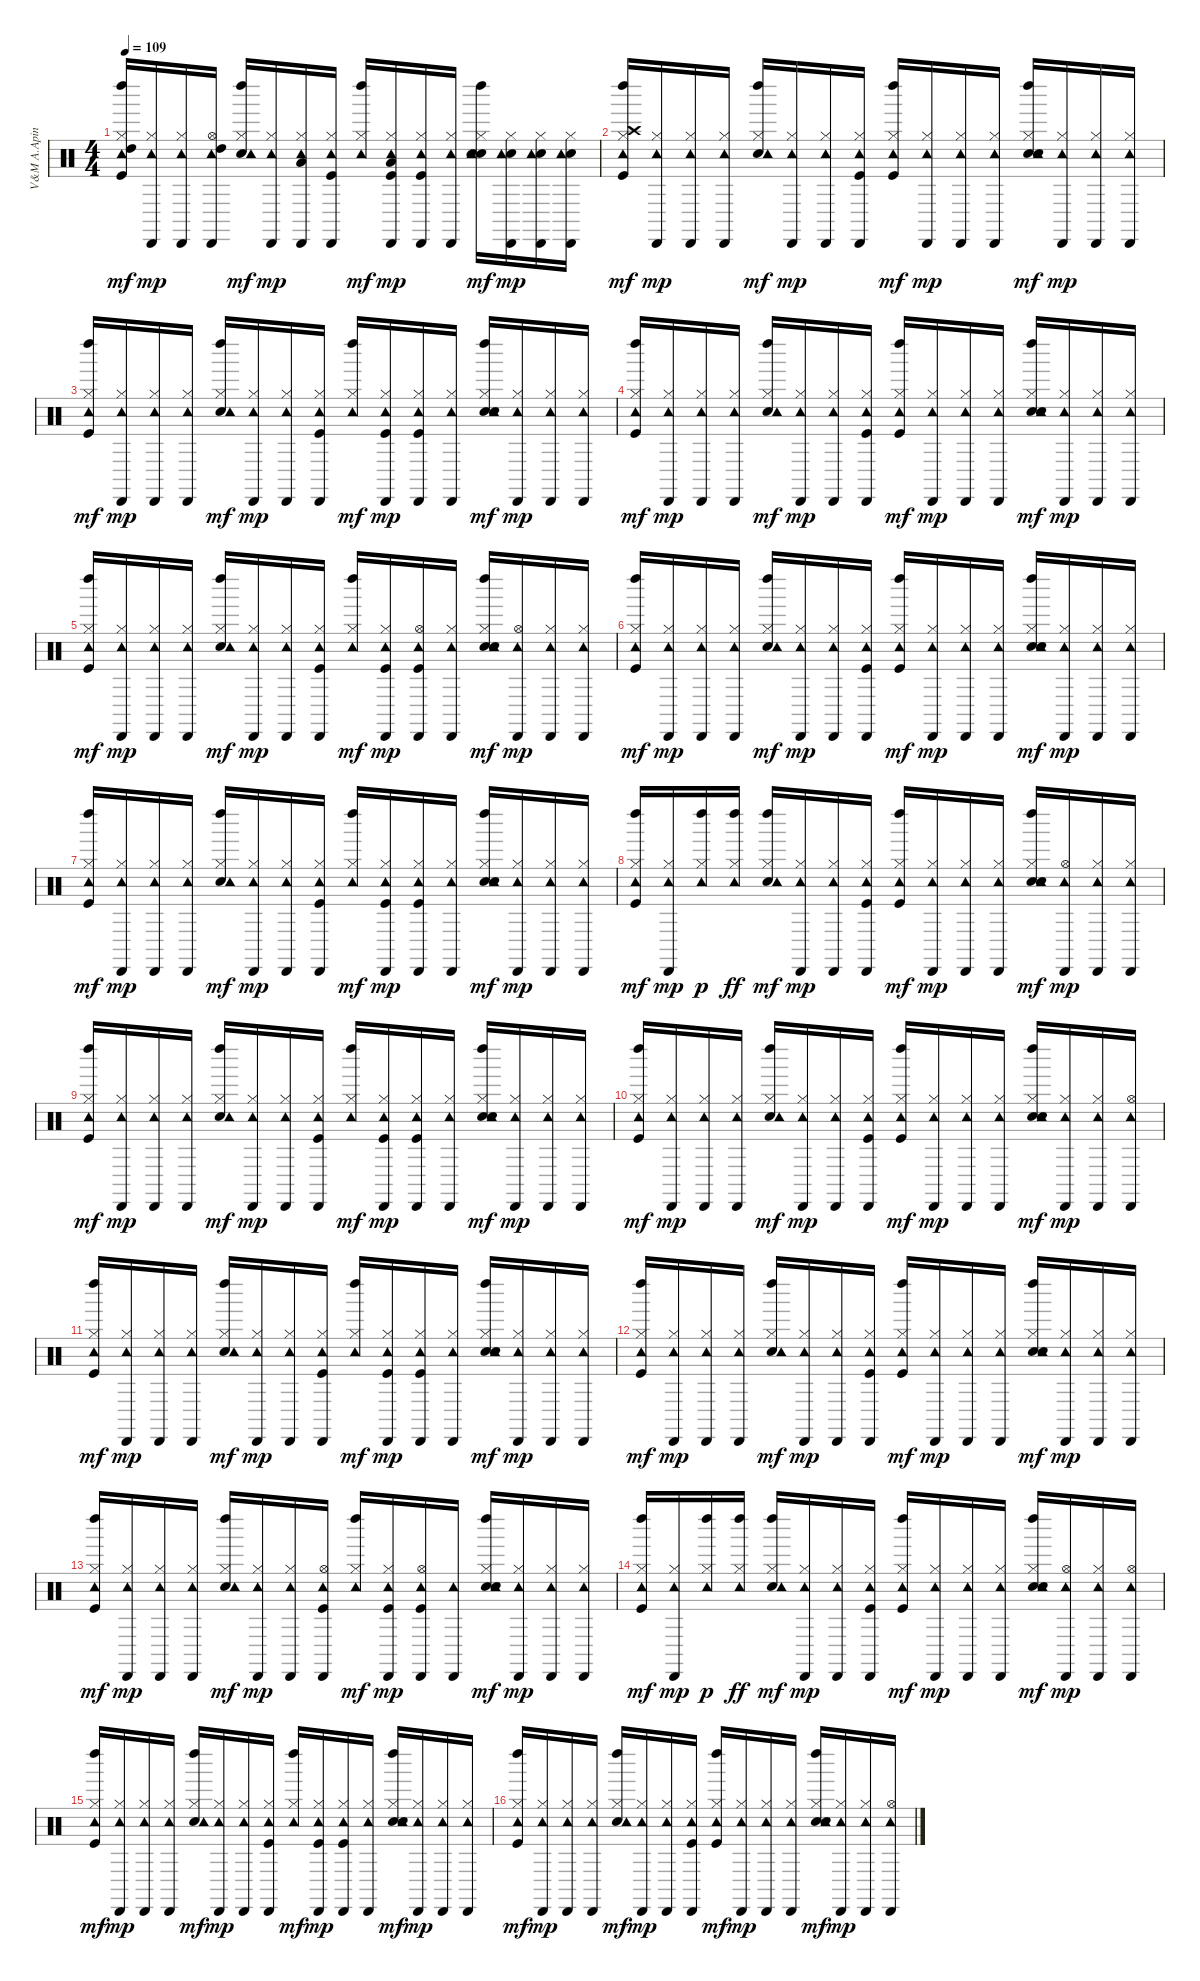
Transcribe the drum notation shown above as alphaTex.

\track ("V&M A.Apin" "V&M A.Apin") {instrument percussion}
\staff {score}
\articulation defaults
\ts (4 4)
\tempo 109
\clef neutral
\ks c
("Kick (hit)" "Hi-Hat (closed)" "High Tom (hit)" "Tambourine (hit)" "Left Maraca (hit)").16{dy mf} ("Hi-Hat (closed)" "Tambourine (hit)" "Cabasa (hit)").16{dy mp} ("Hi-Hat (closed)" "Tambourine (hit)" "Cabasa (hit)").16 ("Hi-Hat (open)" "High Tom (hit)" "Tambourine (hit)" "Cabasa (hit)").16 ("Snare (hit) 2" "Hi-Hat (closed)" "Tambourine (hit)" "Left Maraca (hit)").16{dy mf} ("Hi-Hat (closed)" "Tambourine (hit)" "Cabasa (hit)").16{dy mp} ("Hi-Hat (closed)" "Low Tom (hit)" "Tambourine (hit)" "Cabasa (hit)").16 ("Kick (hit)" "Hi-Hat (closed)" "Tambourine (hit)" "Cabasa (hit)").16 ("Hi-Hat (closed)" "Tambourine (hit)" "Left Maraca (hit)").16{dy mf} ("Kick (hit)" "Hi-Hat (closed)" "Low Floor Tom (hit)" "Tambourine (hit)" "Cabasa (hit)").16{dy mp} ("Kick (hit)" "Hi-Hat (closed)" "Tambourine (hit)" "Cabasa (hit)").16 ("Hi-Hat (closed)" "Tambourine (hit)" "Cabasa (hit)").16 ("Snare (hit) 2" "Hi-Hat (closed)" "Tambourine (hit)" "Hand Clap (hit)" "Left Maraca (hit)").16{dy mf} ("Snare (hit) 2" "Hi-Hat (closed)" "Tambourine (hit)" "Cabasa (hit)").16{dy mp} ("Snare (hit) 2" "Hi-Hat (closed)" "Tambourine (hit)" "Cabasa (hit)").16 ("Snare (hit) 2" "Hi-Hat (closed)" "Tambourine (hit)" "Cabasa (hit)").16 |
("Kick (hit)" "Hi-Hat (closed)" "Crash high (hit)" "Tambourine (hit)" "Left Maraca (hit)").16{dy mf} ("Hi-Hat (closed)" "Tambourine (hit)" "Cabasa (hit)").16{dy mp} ("Hi-Hat (closed)" "Tambourine (hit)" "Cabasa (hit)").16 ("Hi-Hat (closed)" "Tambourine (hit)" "Cabasa (hit)").16 ("Snare (hit) 2" "Hi-Hat (closed)" "Tambourine (hit)" "Left Maraca (hit)").16{dy mf} ("Hi-Hat (closed)" "Tambourine (hit)" "Cabasa (hit)").16{dy mp} ("Hi-Hat (closed)" "Tambourine (hit)" "Cabasa (hit)").16 ("Kick (hit)" "Hi-Hat (closed)" "Tambourine (hit)" "Cabasa (hit)").16 ("Kick (hit)" "Hi-Hat (closed)" "Tambourine (hit)" "Left Maraca (hit)").16{dy mf} ("Hi-Hat (closed)" "Tambourine (hit)" "Cabasa (hit)").16{dy mp} ("Hi-Hat (closed)" "Tambourine (hit)" "Cabasa (hit)").16 ("Hi-Hat (closed)" "Tambourine (hit)" "Cabasa (hit)").16 ("Snare (hit) 2" "Hi-Hat (closed)" "Tambourine (hit)" "Hand Clap (hit)" "Left Maraca (hit)").16{dy mf} ("Hi-Hat (closed)" "Tambourine (hit)" "Cabasa (hit)").16{dy mp} ("Hi-Hat (closed)" "Tambourine (hit)" "Cabasa (hit)").16 ("Hi-Hat (closed)" "Tambourine (hit)" "Cabasa (hit)").16 |
("Kick (hit)" "Hi-Hat (closed)" "Tambourine (hit)" "Left Maraca (hit)").16{dy mf} ("Hi-Hat (closed)" "Tambourine (hit)" "Cabasa (hit)").16{dy mp} ("Hi-Hat (closed)" "Tambourine (hit)" "Cabasa (hit)").16 ("Hi-Hat (closed)" "Tambourine (hit)" "Cabasa (hit)").16 ("Snare (hit) 2" "Hi-Hat (closed)" "Tambourine (hit)" "Left Maraca (hit)").16{dy mf} ("Hi-Hat (closed)" "Tambourine (hit)" "Cabasa (hit)").16{dy mp} ("Hi-Hat (closed)" "Tambourine (hit)" "Cabasa (hit)").16 ("Kick (hit)" "Hi-Hat (closed)" "Tambourine (hit)" "Cabasa (hit)").16 ("Hi-Hat (closed)" "Tambourine (hit)" "Left Maraca (hit)").16{dy mf} ("Kick (hit)" "Hi-Hat (closed)" "Tambourine (hit)" "Cabasa (hit)").16{dy mp} ("Kick (hit)" "Hi-Hat (closed)" "Tambourine (hit)" "Cabasa (hit)").16 ("Hi-Hat (closed)" "Tambourine (hit)" "Cabasa (hit)").16 ("Snare (hit) 2" "Hi-Hat (closed)" "Tambourine (hit)" "Hand Clap (hit)" "Left Maraca (hit)").16{dy mf} ("Hi-Hat (closed)" "Tambourine (hit)" "Cabasa (hit)").16{dy mp} ("Hi-Hat (closed)" "Tambourine (hit)" "Cabasa (hit)").16 ("Hi-Hat (closed)" "Tambourine (hit)" "Cabasa (hit)").16 |
("Kick (hit)" "Hi-Hat (closed)" "Tambourine (hit)" "Left Maraca (hit)").16{dy mf} ("Hi-Hat (closed)" "Tambourine (hit)" "Cabasa (hit)").16{dy mp} ("Hi-Hat (closed)" "Tambourine (hit)" "Cabasa (hit)").16 ("Hi-Hat (closed)" "Tambourine (hit)" "Cabasa (hit)").16 ("Snare (hit) 2" "Hi-Hat (closed)" "Tambourine (hit)" "Left Maraca (hit)").16{dy mf} ("Hi-Hat (closed)" "Tambourine (hit)" "Cabasa (hit)").16{dy mp} ("Hi-Hat (closed)" "Tambourine (hit)" "Cabasa (hit)").16 ("Kick (hit)" "Hi-Hat (closed)" "Tambourine (hit)" "Cabasa (hit)").16 ("Kick (hit)" "Hi-Hat (closed)" "Tambourine (hit)" "Left Maraca (hit)").16{dy mf} ("Hi-Hat (closed)" "Tambourine (hit)" "Cabasa (hit)").16{dy mp} ("Hi-Hat (closed)" "Tambourine (hit)" "Cabasa (hit)").16 ("Hi-Hat (closed)" "Tambourine (hit)" "Cabasa (hit)").16 ("Snare (hit) 2" "Hi-Hat (closed)" "Tambourine (hit)" "Hand Clap (hit)" "Left Maraca (hit)").16{dy mf} ("Hi-Hat (closed)" "Tambourine (hit)" "Cabasa (hit)").16{dy mp} ("Hi-Hat (closed)" "Tambourine (hit)" "Cabasa (hit)").16 ("Hi-Hat (closed)" "Tambourine (hit)" "Cabasa (hit)").16 |
("Kick (hit)" "Hi-Hat (closed)" "Tambourine (hit)" "Left Maraca (hit)").16{dy mf} ("Hi-Hat (closed)" "Tambourine (hit)" "Cabasa (hit)").16{dy mp} ("Hi-Hat (closed)" "Tambourine (hit)" "Cabasa (hit)").16 ("Hi-Hat (closed)" "Tambourine (hit)" "Cabasa (hit)").16 ("Snare (hit) 2" "Hi-Hat (closed)" "Tambourine (hit)" "Left Maraca (hit)").16{dy mf} ("Hi-Hat (closed)" "Tambourine (hit)" "Cabasa (hit)").16{dy mp} ("Hi-Hat (closed)" "Tambourine (hit)" "Cabasa (hit)").16 ("Kick (hit)" "Hi-Hat (closed)" "Tambourine (hit)" "Cabasa (hit)").16 ("Hi-Hat (closed)" "Tambourine (hit)" "Left Maraca (hit)").16{dy mf} ("Kick (hit)" "Hi-Hat (closed)" "Tambourine (hit)" "Cabasa (hit)").16{dy mp} ("Kick (hit)" "Hi-Hat (open)" "Tambourine (hit)" "Cabasa (hit)").16 ("Hi-Hat (closed)" "Tambourine (hit)" "Cabasa (hit)").16 ("Snare (hit) 2" "Hi-Hat (closed)" "Tambourine (hit)" "Hand Clap (hit)" "Left Maraca (hit)").16{dy mf} ("Hi-Hat (open)" "Tambourine (hit)" "Cabasa (hit)").16{dy mp} ("Hi-Hat (closed)" "Tambourine (hit)" "Cabasa (hit)").16 ("Hi-Hat (closed)" "Tambourine (hit)" "Cabasa (hit)").16 |
("Kick (hit)" "Hi-Hat (closed)" "Tambourine (hit)" "Left Maraca (hit)").16{dy mf} ("Hi-Hat (closed)" "Tambourine (hit)" "Cabasa (hit)").16{dy mp} ("Hi-Hat (closed)" "Tambourine (hit)" "Cabasa (hit)").16 ("Hi-Hat (closed)" "Tambourine (hit)" "Cabasa (hit)").16 ("Snare (hit) 2" "Hi-Hat (closed)" "Tambourine (hit)" "Left Maraca (hit)").16{dy mf} ("Hi-Hat (closed)" "Tambourine (hit)" "Cabasa (hit)").16{dy mp} ("Hi-Hat (closed)" "Tambourine (hit)" "Cabasa (hit)").16 ("Kick (hit)" "Hi-Hat (closed)" "Tambourine (hit)" "Cabasa (hit)").16 ("Kick (hit)" "Hi-Hat (closed)" "Tambourine (hit)" "Left Maraca (hit)").16{dy mf} ("Hi-Hat (closed)" "Tambourine (hit)" "Cabasa (hit)").16{dy mp} ("Hi-Hat (closed)" "Tambourine (hit)" "Cabasa (hit)").16 ("Hi-Hat (closed)" "Tambourine (hit)" "Cabasa (hit)").16 ("Snare (hit) 2" "Hi-Hat (closed)" "Tambourine (hit)" "Hand Clap (hit)" "Left Maraca (hit)").16{dy mf} ("Hi-Hat (closed)" "Tambourine (hit)" "Cabasa (hit)").16{dy mp} ("Hi-Hat (closed)" "Tambourine (hit)" "Cabasa (hit)").16 ("Hi-Hat (closed)" "Tambourine (hit)" "Cabasa (hit)").16 |
("Kick (hit)" "Hi-Hat (closed)" "Tambourine (hit)" "Left Maraca (hit)").16{dy mf} ("Hi-Hat (closed)" "Tambourine (hit)" "Cabasa (hit)").16{dy mp} ("Hi-Hat (closed)" "Tambourine (hit)" "Cabasa (hit)").16 ("Hi-Hat (closed)" "Tambourine (hit)" "Cabasa (hit)").16 ("Snare (hit) 2" "Hi-Hat (closed)" "Tambourine (hit)" "Left Maraca (hit)").16{dy mf} ("Hi-Hat (closed)" "Tambourine (hit)" "Cabasa (hit)").16{dy mp} ("Hi-Hat (closed)" "Tambourine (hit)" "Cabasa (hit)").16 ("Kick (hit)" "Hi-Hat (closed)" "Tambourine (hit)" "Cabasa (hit)").16 ("Hi-Hat (closed)" "Tambourine (hit)" "Left Maraca (hit)").16{dy mf} ("Kick (hit)" "Hi-Hat (closed)" "Tambourine (hit)" "Cabasa (hit)").16{dy mp} ("Kick (hit)" "Hi-Hat (closed)" "Tambourine (hit)" "Cabasa (hit)").16 ("Hi-Hat (closed)" "Tambourine (hit)" "Cabasa (hit)").16 ("Snare (hit) 2" "Hi-Hat (closed)" "Tambourine (hit)" "Hand Clap (hit)" "Left Maraca (hit)").16{dy mf} ("Hi-Hat (closed)" "Tambourine (hit)" "Cabasa (hit)").16{dy mp} ("Hi-Hat (closed)" "Tambourine (hit)" "Cabasa (hit)").16 ("Hi-Hat (closed)" "Tambourine (hit)" "Cabasa (hit)").16 |
("Kick (hit)" "Hi-Hat (closed)" "Tambourine (hit)" "Left Maraca (hit)").16{dy mf} ("Hi-Hat (closed)" "Tambourine (hit)" "Cabasa (hit)").16{dy mp} ("Hi-Hat (closed)" "Tambourine (hit)" "Left Maraca (hit)").16{dy p} ("Hi-Hat (closed)" "Tambourine (hit)" "Left Maraca (hit)").16{dy ff} ("Snare (hit) 2" "Hi-Hat (closed)" "Tambourine (hit)" "Left Maraca (hit)").16{dy mf} ("Hi-Hat (closed)" "Tambourine (hit)" "Cabasa (hit)").16{dy mp} ("Hi-Hat (closed)" "Tambourine (hit)" "Cabasa (hit)").16 ("Kick (hit)" "Hi-Hat (closed)" "Tambourine (hit)" "Cabasa (hit)").16 ("Kick (hit)" "Hi-Hat (closed)" "Tambourine (hit)" "Left Maraca (hit)").16{dy mf} ("Hi-Hat (closed)" "Tambourine (hit)" "Cabasa (hit)").16{dy mp} ("Hi-Hat (closed)" "Tambourine (hit)" "Cabasa (hit)").16 ("Hi-Hat (closed)" "Tambourine (hit)" "Cabasa (hit)").16 ("Snare (hit) 2" "Hi-Hat (closed)" "Tambourine (hit)" "Hand Clap (hit)" "Left Maraca (hit)").16{dy mf} ("Hi-Hat (open)" "Tambourine (hit)" "Cabasa (hit)").16{dy mp} ("Hi-Hat (closed)" "Tambourine (hit)" "Cabasa (hit)").16 ("Hi-Hat (closed)" "Tambourine (hit)" "Cabasa (hit)").16 |
("Kick (hit)" "Hi-Hat (closed)" "Tambourine (hit)" "Left Maraca (hit)").16{dy mf} ("Hi-Hat (closed)" "Tambourine (hit)" "Cabasa (hit)").16{dy mp} ("Hi-Hat (closed)" "Tambourine (hit)" "Cabasa (hit)").16 ("Hi-Hat (closed)" "Tambourine (hit)" "Cabasa (hit)").16 ("Snare (hit) 2" "Hi-Hat (closed)" "Tambourine (hit)" "Left Maraca (hit)").16{dy mf} ("Hi-Hat (closed)" "Tambourine (hit)" "Cabasa (hit)").16{dy mp} ("Hi-Hat (closed)" "Tambourine (hit)" "Cabasa (hit)").16 ("Kick (hit)" "Hi-Hat (closed)" "Tambourine (hit)" "Cabasa (hit)").16 ("Hi-Hat (closed)" "Tambourine (hit)" "Left Maraca (hit)").16{dy mf} ("Kick (hit)" "Hi-Hat (closed)" "Tambourine (hit)" "Cabasa (hit)").16{dy mp} ("Kick (hit)" "Hi-Hat (closed)" "Tambourine (hit)" "Cabasa (hit)").16 ("Hi-Hat (closed)" "Tambourine (hit)" "Cabasa (hit)").16 ("Snare (hit) 2" "Hi-Hat (closed)" "Tambourine (hit)" "Hand Clap (hit)" "Left Maraca (hit)").16{dy mf} ("Hi-Hat (closed)" "Tambourine (hit)" "Cabasa (hit)").16{dy mp} ("Hi-Hat (closed)" "Tambourine (hit)" "Cabasa (hit)").16 ("Hi-Hat (closed)" "Tambourine (hit)" "Cabasa (hit)").16 |
("Kick (hit)" "Hi-Hat (closed)" "Tambourine (hit)" "Left Maraca (hit)").16{dy mf} ("Hi-Hat (closed)" "Tambourine (hit)" "Cabasa (hit)").16{dy mp} ("Hi-Hat (closed)" "Tambourine (hit)" "Cabasa (hit)").16 ("Hi-Hat (closed)" "Tambourine (hit)" "Cabasa (hit)").16 ("Snare (hit) 2" "Hi-Hat (closed)" "Tambourine (hit)" "Left Maraca (hit)").16{dy mf} ("Hi-Hat (closed)" "Tambourine (hit)" "Cabasa (hit)").16{dy mp} ("Hi-Hat (closed)" "Tambourine (hit)" "Cabasa (hit)").16 ("Kick (hit)" "Hi-Hat (closed)" "Tambourine (hit)" "Cabasa (hit)").16 ("Kick (hit)" "Hi-Hat (closed)" "Tambourine (hit)" "Left Maraca (hit)").16{dy mf} ("Hi-Hat (closed)" "Tambourine (hit)" "Cabasa (hit)").16{dy mp} ("Hi-Hat (closed)" "Tambourine (hit)" "Cabasa (hit)").16 ("Hi-Hat (closed)" "Tambourine (hit)" "Cabasa (hit)").16 ("Snare (hit) 2" "Hi-Hat (closed)" "Tambourine (hit)" "Hand Clap (hit)" "Left Maraca (hit)").16{dy mf} ("Hi-Hat (closed)" "Tambourine (hit)" "Cabasa (hit)").16{dy mp} ("Hi-Hat (closed)" "Tambourine (hit)" "Cabasa (hit)").16 ("Hi-Hat (open)" "Tambourine (hit)" "Cabasa (hit)").16 |
("Kick (hit)" "Hi-Hat (closed)" "Tambourine (hit)" "Left Maraca (hit)").16{dy mf} ("Hi-Hat (closed)" "Tambourine (hit)" "Cabasa (hit)").16{dy mp} ("Hi-Hat (closed)" "Tambourine (hit)" "Cabasa (hit)").16 ("Hi-Hat (closed)" "Tambourine (hit)" "Cabasa (hit)").16 ("Snare (hit) 2" "Hi-Hat (closed)" "Tambourine (hit)" "Left Maraca (hit)").16{dy mf} ("Hi-Hat (closed)" "Tambourine (hit)" "Cabasa (hit)").16{dy mp} ("Hi-Hat (closed)" "Tambourine (hit)" "Cabasa (hit)").16 ("Kick (hit)" "Hi-Hat (closed)" "Tambourine (hit)" "Cabasa (hit)").16 ("Hi-Hat (closed)" "Tambourine (hit)" "Left Maraca (hit)").16{dy mf} ("Kick (hit)" "Hi-Hat (closed)" "Tambourine (hit)" "Cabasa (hit)").16{dy mp} ("Kick (hit)" "Hi-Hat (closed)" "Tambourine (hit)" "Cabasa (hit)").16 ("Hi-Hat (closed)" "Tambourine (hit)" "Cabasa (hit)").16 ("Snare (hit) 2" "Hi-Hat (closed)" "Tambourine (hit)" "Hand Clap (hit)" "Left Maraca (hit)").16{dy mf} ("Hi-Hat (closed)" "Tambourine (hit)" "Cabasa (hit)").16{dy mp} ("Hi-Hat (closed)" "Tambourine (hit)" "Cabasa (hit)").16 ("Hi-Hat (closed)" "Tambourine (hit)" "Cabasa (hit)").16 |
("Kick (hit)" "Hi-Hat (closed)" "Tambourine (hit)" "Left Maraca (hit)").16{dy mf} ("Hi-Hat (closed)" "Tambourine (hit)" "Cabasa (hit)").16{dy mp} ("Hi-Hat (closed)" "Tambourine (hit)" "Cabasa (hit)").16 ("Hi-Hat (closed)" "Tambourine (hit)" "Cabasa (hit)").16 ("Snare (hit) 2" "Hi-Hat (closed)" "Tambourine (hit)" "Left Maraca (hit)").16{dy mf} ("Hi-Hat (closed)" "Tambourine (hit)" "Cabasa (hit)").16{dy mp} ("Hi-Hat (closed)" "Tambourine (hit)" "Cabasa (hit)").16 ("Kick (hit)" "Hi-Hat (closed)" "Tambourine (hit)" "Cabasa (hit)").16 ("Kick (hit)" "Hi-Hat (closed)" "Tambourine (hit)" "Left Maraca (hit)").16{dy mf} ("Hi-Hat (closed)" "Tambourine (hit)" "Cabasa (hit)").16{dy mp} ("Hi-Hat (closed)" "Tambourine (hit)" "Cabasa (hit)").16 ("Hi-Hat (closed)" "Tambourine (hit)" "Cabasa (hit)").16 ("Snare (hit) 2" "Hi-Hat (closed)" "Tambourine (hit)" "Hand Clap (hit)" "Left Maraca (hit)").16{dy mf} ("Hi-Hat (closed)" "Tambourine (hit)" "Cabasa (hit)").16{dy mp} ("Hi-Hat (closed)" "Tambourine (hit)" "Cabasa (hit)").16 ("Hi-Hat (closed)" "Tambourine (hit)" "Cabasa (hit)").16 |
("Kick (hit)" "Hi-Hat (closed)" "Tambourine (hit)" "Left Maraca (hit)").16{dy mf} ("Hi-Hat (closed)" "Tambourine (hit)" "Cabasa (hit)").16{dy mp} ("Hi-Hat (closed)" "Tambourine (hit)" "Cabasa (hit)").16 ("Hi-Hat (closed)" "Tambourine (hit)" "Cabasa (hit)").16 ("Snare (hit) 2" "Hi-Hat (closed)" "Tambourine (hit)" "Left Maraca (hit)").16{dy mf} ("Hi-Hat (closed)" "Tambourine (hit)" "Cabasa (hit)").16{dy mp} ("Hi-Hat (closed)" "Tambourine (hit)" "Cabasa (hit)").16 ("Kick (hit)" "Hi-Hat (open)" "Tambourine (hit)" "Cabasa (hit)").16 ("Hi-Hat (closed)" "Tambourine (hit)" "Left Maraca (hit)").16{dy mf} ("Kick (hit)" "Hi-Hat (closed)" "Tambourine (hit)" "Cabasa (hit)").16{dy mp} ("Kick (hit)" "Hi-Hat (open)" "Tambourine (hit)" "Cabasa (hit)").16 ("Tambourine (hit)" "Cabasa (hit)").16 ("Snare (hit) 2" "Hi-Hat (closed)" "Tambourine (hit)" "Hand Clap (hit)" "Left Maraca (hit)").16{dy mf} ("Hi-Hat (closed)" "Tambourine (hit)" "Cabasa (hit)").16{dy mp} ("Hi-Hat (closed)" "Tambourine (hit)" "Cabasa (hit)").16 ("Hi-Hat (closed)" "Tambourine (hit)" "Cabasa (hit)").16 |
("Kick (hit)" "Hi-Hat (closed)" "Tambourine (hit)" "Left Maraca (hit)").16{dy mf} ("Hi-Hat (closed)" "Tambourine (hit)" "Cabasa (hit)").16{dy mp} ("Hi-Hat (closed)" "Tambourine (hit)" "Left Maraca (hit)").16{dy p} ("Hi-Hat (closed)" "Tambourine (hit)" "Left Maraca (hit)").16{dy ff} ("Snare (hit) 2" "Hi-Hat (closed)" "Tambourine (hit)" "Left Maraca (hit)").16{dy mf} ("Hi-Hat (closed)" "Tambourine (hit)" "Cabasa (hit)").16{dy mp} ("Hi-Hat (closed)" "Tambourine (hit)" "Cabasa (hit)").16 ("Kick (hit)" "Hi-Hat (closed)" "Tambourine (hit)" "Cabasa (hit)").16 ("Kick (hit)" "Hi-Hat (closed)" "Tambourine (hit)" "Left Maraca (hit)").16{dy mf} ("Hi-Hat (closed)" "Tambourine (hit)" "Cabasa (hit)").16{dy mp} ("Hi-Hat (closed)" "Tambourine (hit)" "Cabasa (hit)").16 ("Hi-Hat (closed)" "Tambourine (hit)" "Cabasa (hit)").16 ("Snare (hit) 2" "Hi-Hat (closed)" "Tambourine (hit)" "Hand Clap (hit)" "Left Maraca (hit)").16{dy mf} ("Hi-Hat (open)" "Tambourine (hit)" "Cabasa (hit)").16{dy mp} ("Hi-Hat (closed)" "Tambourine (hit)" "Cabasa (hit)").16 ("Hi-Hat (open)" "Tambourine (hit)" "Cabasa (hit)").16 |
("Kick (hit)" "Hi-Hat (closed)" "Tambourine (hit)" "Left Maraca (hit)").16{dy mf} ("Hi-Hat (closed)" "Tambourine (hit)" "Cabasa (hit)").16{dy mp} ("Hi-Hat (closed)" "Tambourine (hit)" "Cabasa (hit)").16 ("Hi-Hat (closed)" "Tambourine (hit)" "Cabasa (hit)").16 ("Snare (hit) 2" "Hi-Hat (closed)" "Tambourine (hit)" "Left Maraca (hit)").16{dy mf} ("Hi-Hat (closed)" "Tambourine (hit)" "Cabasa (hit)").16{dy mp} ("Hi-Hat (closed)" "Tambourine (hit)" "Cabasa (hit)").16 ("Kick (hit)" "Hi-Hat (closed)" "Tambourine (hit)" "Cabasa (hit)").16 ("Hi-Hat (closed)" "Tambourine (hit)" "Left Maraca (hit)").16{dy mf} ("Kick (hit)" "Hi-Hat (closed)" "Tambourine (hit)" "Cabasa (hit)").16{dy mp} ("Kick (hit)" "Hi-Hat (closed)" "Tambourine (hit)" "Cabasa (hit)").16 ("Hi-Hat (closed)" "Tambourine (hit)" "Cabasa (hit)").16 ("Snare (hit) 2" "Hi-Hat (closed)" "Tambourine (hit)" "Hand Clap (hit)" "Left Maraca (hit)").16{dy mf} ("Hi-Hat (closed)" "Tambourine (hit)" "Cabasa (hit)").16{dy mp} ("Hi-Hat (closed)" "Tambourine (hit)" "Cabasa (hit)").16 ("Hi-Hat (closed)" "Tambourine (hit)" "Cabasa (hit)").16 |
("Kick (hit)" "Hi-Hat (closed)" "Tambourine (hit)" "Left Maraca (hit)").16{dy mf} ("Hi-Hat (closed)" "Tambourine (hit)" "Cabasa (hit)").16{dy mp} ("Hi-Hat (closed)" "Tambourine (hit)" "Cabasa (hit)").16 ("Hi-Hat (closed)" "Tambourine (hit)" "Cabasa (hit)").16 ("Snare (hit) 2" "Hi-Hat (closed)" "Tambourine (hit)" "Left Maraca (hit)").16{dy mf} ("Hi-Hat (closed)" "Tambourine (hit)" "Cabasa (hit)").16{dy mp} ("Hi-Hat (closed)" "Tambourine (hit)" "Cabasa (hit)").16 ("Kick (hit)" "Hi-Hat (closed)" "Tambourine (hit)" "Cabasa (hit)").16 ("Kick (hit)" "Hi-Hat (closed)" "Tambourine (hit)" "Left Maraca (hit)").16{dy mf} ("Hi-Hat (closed)" "Tambourine (hit)" "Cabasa (hit)").16{dy mp} ("Hi-Hat (closed)" "Tambourine (hit)" "Cabasa (hit)").16 ("Hi-Hat (closed)" "Tambourine (hit)" "Cabasa (hit)").16 ("Snare (hit) 2" "Hi-Hat (closed)" "Tambourine (hit)" "Hand Clap (hit)" "Left Maraca (hit)").16{dy mf} ("Hi-Hat (closed)" "Tambourine (hit)" "Cabasa (hit)").16{dy mp} ("Hi-Hat (closed)" "Tambourine (hit)" "Cabasa (hit)").16 ("Hi-Hat (open)" "Tambourine (hit)" "Cabasa (hit)").16
